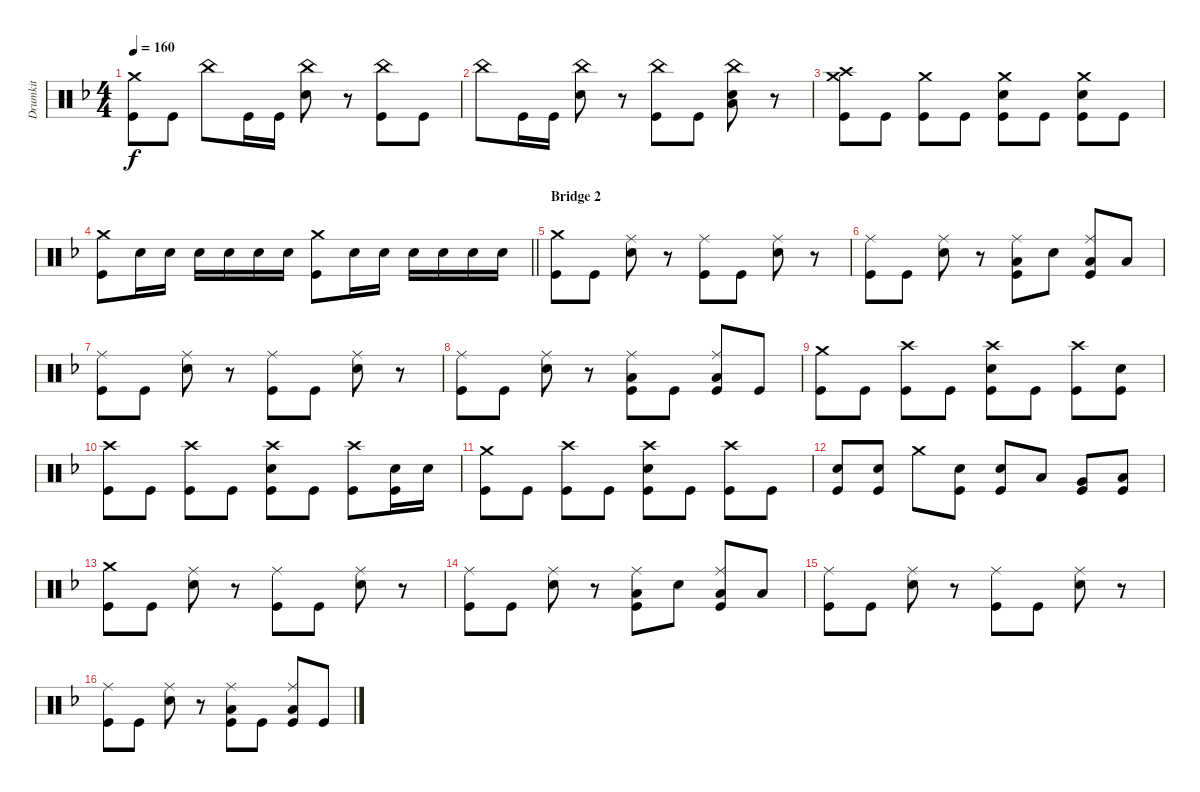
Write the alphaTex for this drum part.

\track ("Drumkit" "Drumkit") {instrument percussion}
\staff {score}
\articulation defaults
\ts (4 4)
\tempo 160
\clef neutral
\ks dminor
("Crash medium (hit)" "Kick (hit)").8{dy f} "Kick (hit)".8 "China (hit)".8 "Kick (hit)".16 "Kick (hit)".16 ("China (hit)" "Snare (hit) 2").8 r.8 ("China (hit)" "Kick (hit)").8 "Kick (hit)".8 |
"China (hit)".8 "Kick (hit)".16 "Kick (hit)".16 ("China (hit)" "Snare (hit) 2").8 r.8 ("China (hit)" "Kick (hit)").8 "Kick (hit)".8 ("China (hit)" "Snare (hit) 2" "Low Floor Tom (hit)").8 r.8 |
("Crash medium (hit)" "Crash high (hit)" "Kick (hit)").8 "Kick (hit)".8 ("Crash medium (hit)" "Kick (hit)").8 "Kick (hit)".8 ("Crash medium (hit)" "Snare (hit) 2" "Kick (hit)").8 "Kick (hit)".8 ("Crash medium (hit)" "Snare (hit) 2" "Kick (hit)").8 "Kick (hit)".8 |
\barLineRight lightlight
("Crash medium (hit)" "Kick (hit)").8 "Snare (hit) 2".16 "Snare (hit) 2".16 "Snare (hit) 2".16 "Snare (hit) 2".16 "Snare (hit) 2".16 "Snare (hit) 2".16 ("Crash medium (hit)" "Kick (hit)").8 "Snare (hit) 2".16 "Snare (hit) 2".16 "Snare (hit) 2".16 "Snare (hit) 2".16 "Snare (hit) 2".16 "Snare (hit) 2".16 |
\section ("" "Bridge 2")
("Crash medium (hit)" "Kick (hit)").8 "Kick (hit)".8 ("Ride (middle)" "Snare (hit) 2").8 r.8 ("Ride (middle)" "Kick (hit)").8 "Kick (hit)".8 ("Ride (middle)" "Snare (hit) 2").8 r.8 |
("Ride (middle)" "Kick (hit)").8 "Kick (hit)".8 ("Ride (middle)" "Snare (hit) 2").8 r.8 ("Ride (middle)" "Low Floor Tom (hit)" "Kick (hit)").8 "Snare (hit) 2".8 ("Ride (middle)" "Low Tom (hit)" "Kick (hit)").8 "Low Floor Tom (hit)".8 |
("Ride (middle)" "Kick (hit)").8 "Kick (hit)".8 ("Ride (middle)" "Snare (hit) 2").8 r.8 ("Ride (middle)" "Kick (hit)").8 "Kick (hit)".8 ("Ride (middle)" "Snare (hit) 2").8 r.8 |
("Ride (middle)" "Kick (hit)").8 "Kick (hit)".8 ("Ride (middle)" "Snare (hit) 2").8 r.8 ("Ride (middle)" "Low Floor Tom (hit)" "Kick (hit)").8 "Kick (hit)".8 ("Ride (middle)" "Low Tom (hit)" "Kick (hit)").8 "Kick (hit)".8 |
("Crash medium (hit)" "Kick (hit)").8 "Kick (hit)".8 ("Crash high (hit)" "Kick (hit)").8 "Kick (hit)".8 ("Crash high (hit)" "Snare (hit) 2" "Kick (hit)").8 "Kick (hit)".8 ("Crash high (hit)" "Kick (hit)").8 ("Snare (hit) 2" "Kick (hit)").8 |
("Crash high (hit)" "Kick (hit)").8 "Kick (hit)".8 ("Crash high (hit)" "Kick (hit)").8 "Kick (hit)".8 ("Crash high (hit)" "Snare (hit) 2" "Kick (hit)").8 "Kick (hit)".8 ("Crash high (hit)" "Kick (hit)").8 ("Snare (hit) 2" "Kick (hit)").16 "Snare (hit) 2".16 |
("Crash medium (hit)" "Kick (hit)").8 "Kick (hit)".8 ("Crash high (hit)" "Kick (hit)").8 "Kick (hit)".8 ("Crash high (hit)" "Snare (hit) 2" "Kick (hit)").8 "Kick (hit)".8 ("Crash high (hit)" "Kick (hit)").8 "Kick (hit)".8 |
("Snare (hit) 2" "Kick (hit)").8 ("Snare (hit) 2" "Kick (hit)").8 "Crash medium (hit)".8 ("Snare (hit) 2" "Kick (hit)").8 ("Snare (hit) 2" "Kick (hit)").8 "Low Tom (hit)".8 ("Very Low Tom (hit)" "Kick (hit)").8 ("Low Floor Tom (hit)" "Kick (hit)").8 |
("Crash medium (hit)" "Kick (hit)").8 "Kick (hit)".8 ("Ride (middle)" "Snare (hit) 2").8 r.8 ("Ride (middle)" "Kick (hit)").8 "Kick (hit)".8 ("Ride (middle)" "Snare (hit) 2").8 r.8 |
("Ride (middle)" "Kick (hit)").8 "Kick (hit)".8 ("Ride (middle)" "Snare (hit) 2").8 r.8 ("Ride (middle)" "Low Floor Tom (hit)" "Kick (hit)").8 "Snare (hit) 2".8 ("Ride (middle)" "Low Tom (hit)" "Kick (hit)").8 "Low Floor Tom (hit)".8 |
("Ride (middle)" "Kick (hit)").8 "Kick (hit)".8 ("Ride (middle)" "Snare (hit) 2").8 r.8 ("Ride (middle)" "Kick (hit)").8 "Kick (hit)".8 ("Ride (middle)" "Snare (hit) 2").8 r.8 |
("Ride (middle)" "Kick (hit)").8 "Kick (hit)".8 ("Ride (middle)" "Snare (hit) 2").8 r.8 ("Ride (middle)" "Low Floor Tom (hit)" "Kick (hit)").8 "Kick (hit)".8 ("Ride (middle)" "Low Tom (hit)" "Kick (hit)").8 "Kick (hit)".8
